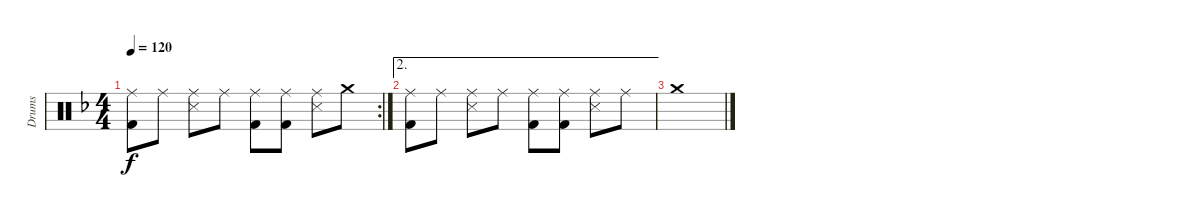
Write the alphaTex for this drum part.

\track ("Drums" "Drums") {instrument percussion}
\staff {score}
\articulation defaults
\rc 2
\ts (4 4)
\tempo 120
\clef neutral
\ks f
("Ride (middle)" "Kick (hit) 2").8{dy f} "Ride (middle)".8 ("Ride (middle)" "Snare (side stick) 3").8 "Ride (middle)".8 ("Ride (middle)" "Kick (hit) 2").8 ("Ride (middle)" "Kick (hit) 2").8 ("Ride (middle)" "Snare (side stick) 3").8 "Crash medium (hit)".8 |
\ae 2
("Ride (middle)" "Kick (hit) 2").8 "Ride (middle)".8 ("Ride (middle)" "Snare (side stick) 3").8 "Ride (middle)".8 ("Ride (middle)" "Kick (hit) 2").8 ("Ride (middle)" "Kick (hit) 2").8 ("Ride (middle)" "Snare (side stick) 3").8 "Ride (middle)".8 |
"Crash medium (hit)".1
